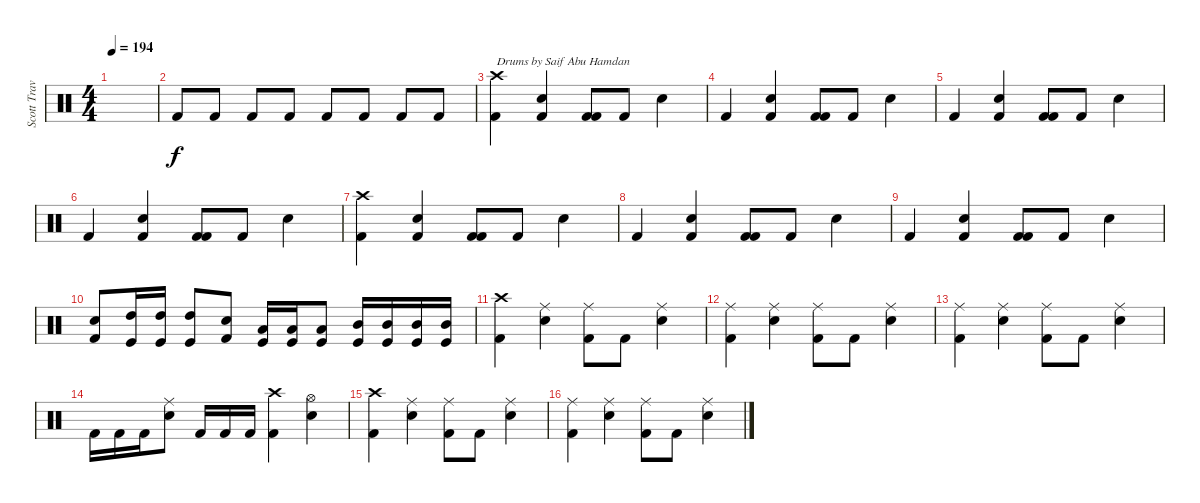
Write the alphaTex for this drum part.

\track ("Scott Travis" "Scott Trav") {instrument percussion}
\staff {score}
\articulation defaults
\ts (4 4)
\tempo 194
\clef neutral
\ks c
|
"Kick (hit) 2".8 "Kick (hit) 2".8 "Kick (hit) 2".8 "Kick (hit) 2".8 "Kick (hit) 2".8 "Kick (hit) 2".8 "Kick (hit) 2".8 "Kick (hit) 2".8 |
("Kick (hit) 2" "Crash high (hit)").4{txt "Drums by Saif Abu Hamdan"} ("Kick (hit) 2" "Snare (hit) 2").4 ("Kick (hit) 2" "Kick (hit) 2").8 "Kick (hit) 2".8 "Snare (hit) 2".4 |
"Kick (hit) 2".4 ("Kick (hit) 2" "Snare (hit) 2").4 ("Kick (hit) 2" "Kick (hit) 2").8 "Kick (hit) 2".8 "Snare (hit) 2".4 |
"Kick (hit) 2".4 ("Kick (hit) 2" "Snare (hit) 2").4 ("Kick (hit) 2" "Kick (hit) 2").8 "Kick (hit) 2".8 "Snare (hit) 2".4 |
"Kick (hit) 2".4 ("Kick (hit) 2" "Snare (hit) 2").4 ("Kick (hit) 2" "Kick (hit) 2").8 "Kick (hit) 2".8 "Snare (hit) 2".4 |
("Kick (hit) 2" "Crash high (hit)").4 ("Kick (hit) 2" "Snare (hit) 2").4 ("Kick (hit) 2" "Kick (hit) 2").8 "Kick (hit) 2".8 "Snare (hit) 2".4 |
"Kick (hit) 2".4 ("Kick (hit) 2" "Snare (hit) 2").4 ("Kick (hit) 2" "Kick (hit) 2").8 "Kick (hit) 2".8 "Snare (hit) 2".4 |
"Kick (hit) 2".4 ("Kick (hit) 2" "Snare (hit) 2").4 ("Kick (hit) 2" "Kick (hit) 2").8 "Kick (hit) 2".8 "Snare (hit) 2".4 |
("Kick (hit) 2" "Snare (hit) 2").8 ("High Tom (hit)" "Kick (hit)").16 ("High Tom (hit)" "Kick (hit)").16 ("High Tom (hit)" "Kick (hit)").8 ("Kick (hit) 2" "Snare (hit) 2").8 ("Low Tom (hit)" "Kick (hit)").16 ("Low Tom (hit)" "Kick (hit)").16 ("Low Tom (hit)" "Kick (hit)").8 ("Mid Tom (hit)" "Kick (hit)").16 ("Mid Tom (hit)" "Kick (hit)").16 ("Mid Tom (hit)" "Kick (hit)").16 ("Mid Tom (hit)" "Kick (hit)").16 |
("Kick (hit) 2" "Crash high (hit)").4 ("Ride (middle)" "Snare (hit) 2").4 ("Ride (middle)" "Kick (hit) 2").8 "Kick (hit) 2".8 ("Snare (hit) 2" "Ride (middle)").4 |
("Kick (hit) 2" "Ride (middle)").4 ("Ride (middle)" "Snare (hit) 2").4 ("Ride (middle)" "Kick (hit) 2").8 "Kick (hit) 2".8 ("Snare (hit) 2" "Ride (middle)").4 |
("Kick (hit) 2" "Ride (middle)").4 ("Ride (middle)" "Snare (hit) 2").4 ("Ride (middle)" "Kick (hit) 2").8 "Kick (hit) 2".8 ("Snare (hit) 2" "Ride (middle)").4 |
"Kick (hit) 2".16 "Kick (hit) 2".16 "Kick (hit) 2".16 ("Ride (middle)" "Snare (hit) 2").8 "Kick (hit) 2".16 "Kick (hit) 2".16 "Kick (hit) 2".16 ("Crash high (hit)" "Kick (hit) 2").4 ("Hi-Hat (open)" "Snare (hit) 2").4 |
("Kick (hit) 2" "Crash high (hit)").4 ("Ride (middle)" "Snare (hit) 2").4 ("Ride (middle)" "Kick (hit) 2").8 "Kick (hit) 2".8 ("Snare (hit) 2" "Ride (middle)").4 |
("Kick (hit) 2" "Ride (middle)").4 ("Ride (middle)" "Snare (hit) 2").4 ("Ride (middle)" "Kick (hit) 2").8 "Kick (hit) 2".8 ("Snare (hit) 2" "Ride (middle)").4
